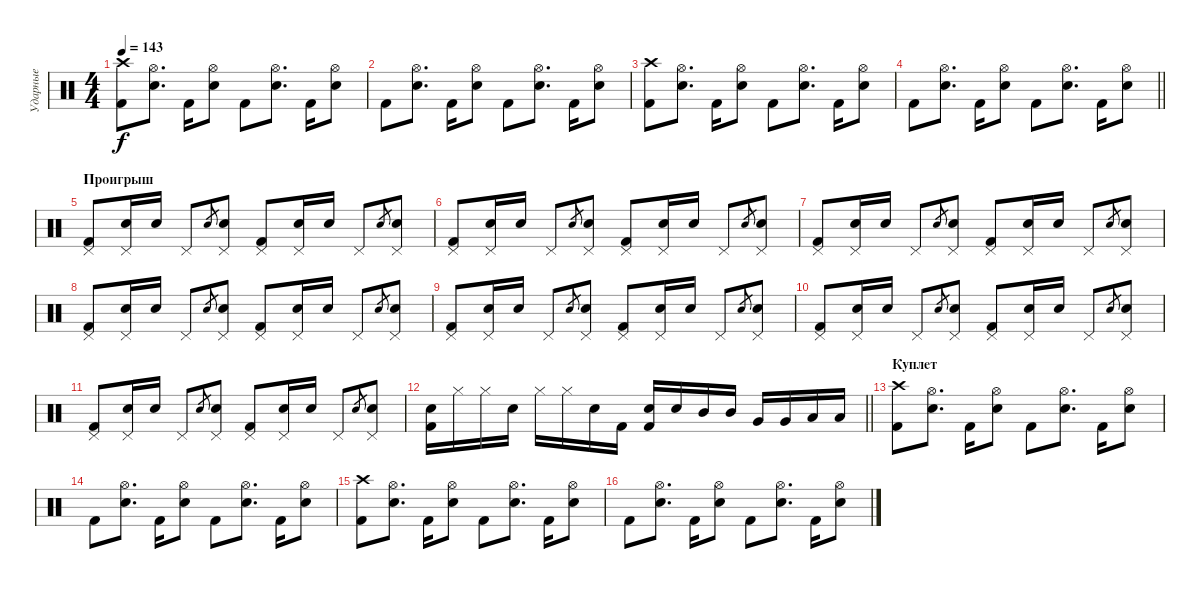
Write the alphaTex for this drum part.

\track ("Ударные" "Ударные") {instrument percussion}
\staff {score}
\articulation defaults
\ts (4 4)
\tempo 143
\clef neutral
\ks c
("Crash high (hit)" "Kick (hit) 2").8{dy f} ("Hi-Hat (open)" "Electric Snare (hit)").8{d} "Kick (hit) 2".16 ("Hi-Hat (open)" "Electric Snare (hit)").8 "Kick (hit) 2".8 ("Hi-Hat (open)" "Electric Snare (hit)").8{d} "Kick (hit) 2".16 ("Hi-Hat (open)" "Electric Snare (hit)").8 |
"Kick (hit) 2".8 ("Hi-Hat (open)" "Electric Snare (hit)").8{d} "Kick (hit) 2".16 ("Hi-Hat (open)" "Electric Snare (hit)").8 "Kick (hit) 2".8 ("Hi-Hat (open)" "Electric Snare (hit)").8{d} "Kick (hit) 2".16 ("Hi-Hat (open)" "Electric Snare (hit)").8 |
("Crash high (hit)" "Kick (hit) 2").8 ("Hi-Hat (open)" "Electric Snare (hit)").8{d} "Kick (hit) 2".16 ("Hi-Hat (open)" "Electric Snare (hit)").8 "Kick (hit) 2".8 ("Hi-Hat (open)" "Electric Snare (hit)").8{d} "Kick (hit) 2".16 ("Hi-Hat (open)" "Electric Snare (hit)").8 |
\barLineRight lightlight "Kick (hit) 2".8
("Hi-Hat (open)" "Electric Snare (hit)").8{d} "Kick (hit) 2".16 ("Hi-Hat (open)" "Electric Snare (hit)").8 "Kick (hit) 2".8 ("Hi-Hat (open)" "Electric Snare (hit)").8{d} "Kick (hit) 2".16 ("Hi-Hat (open)" "Electric Snare (hit)").8 |
\section ("" "Проигрыш")
("Kick (hit) 2" "Pedal Hi-Hat (hit)").8 ("Snare (hit) 2" "Pedal Hi-Hat (hit)").16 "Snare (hit) 2".16 "Pedal Hi-Hat (hit)".8 "Snare (hit) 2".8{gr} ("Snare (hit) 2" "Pedal Hi-Hat (hit)").8 ("Kick (hit) 2" "Pedal Hi-Hat (hit)").8 ("Snare (hit) 2" "Pedal Hi-Hat (hit)").16 "Snare (hit) 2".16 "Pedal Hi-Hat (hit)".8 "Snare (hit) 2".8{gr} ("Snare (hit) 2" "Pedal Hi-Hat (hit)").8 |
("Kick (hit) 2" "Pedal Hi-Hat (hit)").8 ("Snare (hit) 2" "Pedal Hi-Hat (hit)").16 "Snare (hit) 2".16 "Pedal Hi-Hat (hit)".8 "Snare (hit) 2".8{gr} ("Snare (hit) 2" "Pedal Hi-Hat (hit)").8 ("Kick (hit) 2" "Pedal Hi-Hat (hit)").8 ("Snare (hit) 2" "Pedal Hi-Hat (hit)").16 "Snare (hit) 2".16 "Pedal Hi-Hat (hit)".8 "Snare (hit) 2".8{gr} ("Snare (hit) 2" "Pedal Hi-Hat (hit)").8 |
("Kick (hit) 2" "Pedal Hi-Hat (hit)").8 ("Snare (hit) 2" "Pedal Hi-Hat (hit)").16 "Snare (hit) 2".16 "Pedal Hi-Hat (hit)".8 "Snare (hit) 2".8{gr} ("Snare (hit) 2" "Pedal Hi-Hat (hit)").8 ("Kick (hit) 2" "Pedal Hi-Hat (hit)").8 ("Snare (hit) 2" "Pedal Hi-Hat (hit)").16 "Snare (hit) 2".16 "Pedal Hi-Hat (hit)".8 "Snare (hit) 2".8{gr} ("Snare (hit) 2" "Pedal Hi-Hat (hit)").8 |
("Kick (hit) 2" "Pedal Hi-Hat (hit)").8 ("Snare (hit) 2" "Pedal Hi-Hat (hit)").16 "Snare (hit) 2".16 "Pedal Hi-Hat (hit)".8 "Snare (hit) 2".8{gr} ("Snare (hit) 2" "Pedal Hi-Hat (hit)").8 ("Kick (hit) 2" "Pedal Hi-Hat (hit)").8 ("Snare (hit) 2" "Pedal Hi-Hat (hit)").16 "Snare (hit) 2".16 "Pedal Hi-Hat (hit)".8 "Snare (hit) 2".8{gr} ("Snare (hit) 2" "Pedal Hi-Hat (hit)").8 |
("Kick (hit) 2" "Pedal Hi-Hat (hit)").8 ("Snare (hit) 2" "Pedal Hi-Hat (hit)").16 "Snare (hit) 2".16 "Pedal Hi-Hat (hit)".8 "Snare (hit) 2".8{gr} ("Snare (hit) 2" "Pedal Hi-Hat (hit)").8 ("Kick (hit) 2" "Pedal Hi-Hat (hit)").8 ("Snare (hit) 2" "Pedal Hi-Hat (hit)").16 "Snare (hit) 2".16 "Pedal Hi-Hat (hit)".8 "Snare (hit) 2".8{gr} ("Snare (hit) 2" "Pedal Hi-Hat (hit)").8 |
("Kick (hit) 2" "Pedal Hi-Hat (hit)").8 ("Snare (hit) 2" "Pedal Hi-Hat (hit)").16 "Snare (hit) 2".16 "Pedal Hi-Hat (hit)".8 "Snare (hit) 2".8{gr} ("Snare (hit) 2" "Pedal Hi-Hat (hit)").8 ("Kick (hit) 2" "Pedal Hi-Hat (hit)").8 ("Snare (hit) 2" "Pedal Hi-Hat (hit)").16 "Snare (hit) 2".16 "Pedal Hi-Hat (hit)".8 "Snare (hit) 2".8{gr} ("Snare (hit) 2" "Pedal Hi-Hat (hit)").8 |
("Kick (hit) 2" "Pedal Hi-Hat (hit)").8 ("Snare (hit) 2" "Pedal Hi-Hat (hit)").16 "Snare (hit) 2".16 "Pedal Hi-Hat (hit)".8 "Snare (hit) 2".8{gr} ("Snare (hit) 2" "Pedal Hi-Hat (hit)").8 ("Kick (hit) 2" "Pedal Hi-Hat (hit)").8 ("Snare (hit) 2" "Pedal Hi-Hat (hit)").16 "Snare (hit) 2".16 "Pedal Hi-Hat (hit)".8 "Snare (hit) 2".8{gr} ("Snare (hit) 2" "Pedal Hi-Hat (hit)").8 |
\barLineRight lightlight
("Kick (hit) 2" "Snare (hit) 2").16 "Hi-Hat (closed)".16 "Hi-Hat (closed)".16 "Snare (hit) 2".16 "Hi-Hat (closed)".16 "Hi-Hat (closed)".16 "Snare (hit) 2".16 "Kick (hit) 2".16 ("Kick (hit) 2" "Snare (hit) 2").16 "Snare (hit) 2".16 "Mid Tom (hit)".16 "Mid Tom (hit)".16 "Very Low Tom (hit)".16 "Very Low Tom (hit)".16 "Low Floor Tom (hit)".16 "Low Floor Tom (hit)".16 |
\section ("" "Куплет")
("Crash high (hit)" "Kick (hit) 2").8 ("Hi-Hat (open)" "Electric Snare (hit)").8{d} "Kick (hit) 2".16 ("Hi-Hat (open)" "Electric Snare (hit)").8 "Kick (hit) 2".8 ("Hi-Hat (open)" "Electric Snare (hit)").8{d} "Kick (hit) 2".16 ("Hi-Hat (open)" "Electric Snare (hit)").8 |
"Kick (hit) 2".8 ("Hi-Hat (open)" "Electric Snare (hit)").8{d} "Kick (hit) 2".16 ("Hi-Hat (open)" "Electric Snare (hit)").8 "Kick (hit) 2".8 ("Hi-Hat (open)" "Electric Snare (hit)").8{d} "Kick (hit) 2".16 ("Hi-Hat (open)" "Electric Snare (hit)").8 |
("Crash high (hit)" "Kick (hit) 2").8 ("Hi-Hat (open)" "Electric Snare (hit)").8{d} "Kick (hit) 2".16 ("Hi-Hat (open)" "Electric Snare (hit)").8 "Kick (hit) 2".8 ("Hi-Hat (open)" "Electric Snare (hit)").8{d} "Kick (hit) 2".16 ("Hi-Hat (open)" "Electric Snare (hit)").8 |
"Kick (hit) 2".8 ("Hi-Hat (open)" "Electric Snare (hit)").8{d} "Kick (hit) 2".16 ("Hi-Hat (open)" "Electric Snare (hit)").8 "Kick (hit) 2".8 ("Hi-Hat (open)" "Electric Snare (hit)").8{d} "Kick (hit) 2".16 ("Hi-Hat (open)" "Electric Snare (hit)").8
